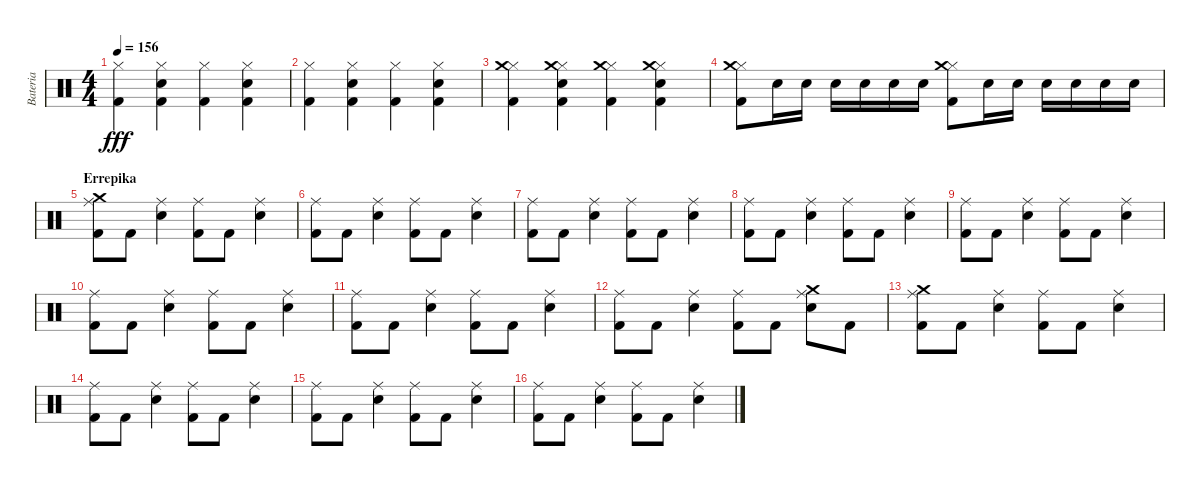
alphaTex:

\track ("Bateria" "Bateria") {instrument percussion}
\staff {score}
\articulation defaults
\ts (4 4)
\tempo 156
\clef neutral
\ks c
("Hi-Hat (closed)" "Kick (hit) 2").4{dy fff} ("Hi-Hat (closed)" "Kick (hit) 2" "Electric Snare (hit)").4 ("Hi-Hat (closed)" "Kick (hit) 2").4 ("Hi-Hat (closed)" "Kick (hit) 2" "Electric Snare (hit)").4 |
("Hi-Hat (closed)" "Kick (hit) 2").4 ("Hi-Hat (closed)" "Kick (hit) 2" "Electric Snare (hit)").4 ("Hi-Hat (closed)" "Kick (hit) 2").4 ("Hi-Hat (closed)" "Kick (hit) 2" "Electric Snare (hit)").4 |
("Hi-Hat (closed)" "Kick (hit) 2" "Crash medium (hit)").4 ("Hi-Hat (closed)" "Kick (hit) 2" "Electric Snare (hit)" "Crash medium (hit)").4 ("Hi-Hat (closed)" "Kick (hit) 2" "Crash medium (hit)").4 ("Hi-Hat (closed)" "Kick (hit) 2" "Electric Snare (hit)" "Crash medium (hit)").4 |
("Hi-Hat (closed)" "Kick (hit) 2" "Crash medium (hit)").8 "Electric Snare (hit)".16 "Electric Snare (hit)".16 "Electric Snare (hit)".16 "Electric Snare (hit)".16 "Electric Snare (hit)".16 "Electric Snare (hit)".16 ("Hi-Hat (closed)" "Kick (hit) 2" "Crash medium (hit)").8 "Electric Snare (hit)".16 "Electric Snare (hit)".16 "Electric Snare (hit)".16 "Electric Snare (hit)".16 "Electric Snare (hit)".16 "Electric Snare (hit)".16 |
\section ("" "Errepika")
("Ride (middle)" "Kick (hit) 2" "Crash medium (hit)").8 "Kick (hit) 2".8 ("Ride (middle)" "Electric Snare (hit)").4 ("Ride (middle)" "Kick (hit) 2").8 "Kick (hit) 2".8 ("Ride (middle)" "Electric Snare (hit)").4 |
("Ride (middle)" "Kick (hit) 2").8 "Kick (hit) 2".8 ("Ride (middle)" "Electric Snare (hit)").4 ("Ride (middle)" "Kick (hit) 2").8 "Kick (hit) 2".8 ("Ride (middle)" "Electric Snare (hit)").4 |
("Ride (middle)" "Kick (hit) 2").8 "Kick (hit) 2".8 ("Ride (middle)" "Electric Snare (hit)").4 ("Ride (middle)" "Kick (hit) 2").8 "Kick (hit) 2".8 ("Ride (middle)" "Electric Snare (hit)").4 |
("Ride (middle)" "Kick (hit) 2").8 "Kick (hit) 2".8 ("Ride (middle)" "Electric Snare (hit)").4 ("Ride (middle)" "Kick (hit) 2").8 "Kick (hit) 2".8 ("Ride (middle)" "Electric Snare (hit)").4 |
("Ride (middle)" "Kick (hit) 2").8 "Kick (hit) 2".8 ("Ride (middle)" "Electric Snare (hit)").4 ("Ride (middle)" "Kick (hit) 2").8 "Kick (hit) 2".8 ("Ride (middle)" "Electric Snare (hit)").4 |
("Ride (middle)" "Kick (hit) 2").8 "Kick (hit) 2".8 ("Ride (middle)" "Electric Snare (hit)").4 ("Ride (middle)" "Kick (hit) 2").8 "Kick (hit) 2".8 ("Ride (middle)" "Electric Snare (hit)").4 |
("Ride (middle)" "Kick (hit) 2").8 "Kick (hit) 2".8 ("Ride (middle)" "Electric Snare (hit)").4 ("Ride (middle)" "Kick (hit) 2").8 "Kick (hit) 2".8 ("Ride (middle)" "Electric Snare (hit)").4 |
("Ride (middle)" "Kick (hit) 2").8 "Kick (hit) 2".8 ("Ride (middle)" "Electric Snare (hit)").4 ("Ride (middle)" "Kick (hit) 2").8 "Kick (hit) 2".8 ("Ride (middle)" "Electric Snare (hit)" "Crash medium (hit)").8 "Kick (hit) 2".8 |
("Ride (middle)" "Kick (hit) 2" "Crash medium (hit)").8 "Kick (hit) 2".8 ("Ride (middle)" "Electric Snare (hit)").4 ("Ride (middle)" "Kick (hit) 2").8 "Kick (hit) 2".8 ("Ride (middle)" "Electric Snare (hit)").4 |
("Ride (middle)" "Kick (hit) 2").8 "Kick (hit) 2".8 ("Ride (middle)" "Electric Snare (hit)").4 ("Ride (middle)" "Kick (hit) 2").8 "Kick (hit) 2".8 ("Ride (middle)" "Electric Snare (hit)").4 |
("Ride (middle)" "Kick (hit) 2").8 "Kick (hit) 2".8 ("Ride (middle)" "Electric Snare (hit)").4 ("Ride (middle)" "Kick (hit) 2").8 "Kick (hit) 2".8 ("Ride (middle)" "Electric Snare (hit)").4 |
("Ride (middle)" "Kick (hit) 2").8 "Kick (hit) 2".8 ("Ride (middle)" "Electric Snare (hit)").4 ("Ride (middle)" "Kick (hit) 2").8 "Kick (hit) 2".8 ("Ride (middle)" "Electric Snare (hit)").4
